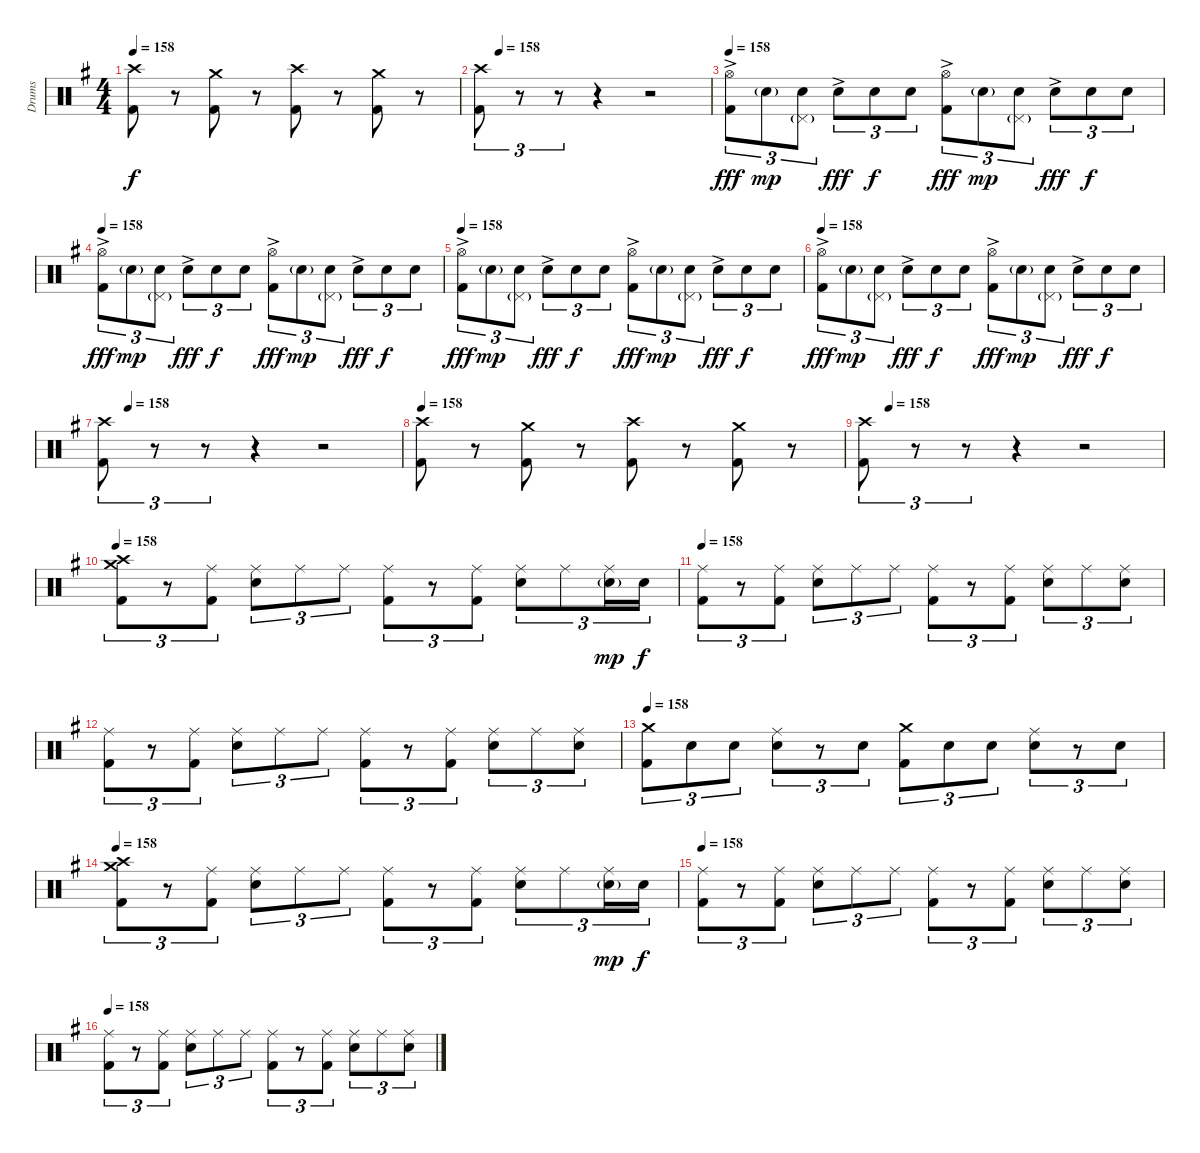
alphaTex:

\track ("Drums" "Drums") {instrument percussion}
\staff {score}
\articulation defaults
\ts (4 4)
\tempo 158
\clef neutral
\ks eminor
("Crash high (hit)" "Kick (hit) 2").8{dy f volume 14} r.8 ("Crash medium (hit)" "Kick (hit) 2").8 r.8 ("Crash high (hit)" "Kick (hit) 2").8 r.8 ("Crash medium (hit)" "Kick (hit) 2").8 r.8 |
\tempo (158 0.08333333333333333)
("Crash high (hit)" "Kick (hit) 2").8{tu (3 2)} r.8{tu (3 2) volume 0} r.8{tu (3 2)} r.4 r.2 |
\tempo 158
("Hi-Hat (open)"{ac} "Kick (hit) 2").8{tu (3 2) dy fff volume 14} "Snare (hit) 2"{g}.8{tu (3 2) dy mp} ("Snare (hit) 2" "Pedal Hi-Hat (hit)"{g}).8{tu (3 2)} "Snare (hit) 2"{ac}.8{tu (3 2) dy fff} "Snare (hit) 2".8{tu (3 2) dy f} "Snare (hit) 2".8{tu (3 2)} ("Hi-Hat (open)"{ac} "Kick (hit) 2").8{tu (3 2) dy fff} "Snare (hit) 2"{g}.8{tu (3 2) dy mp} ("Snare (hit) 2" "Pedal Hi-Hat (hit)"{g}).8{tu (3 2)} "Snare (hit) 2"{ac}.8{tu (3 2) dy fff} "Snare (hit) 2".8{tu (3 2) dy f} "Snare (hit) 2".8{tu (3 2)} |
\tempo 158
("Hi-Hat (open)"{ac} "Kick (hit) 2").8{tu (3 2) dy fff} "Snare (hit) 2"{g}.8{tu (3 2) dy mp} ("Snare (hit) 2" "Pedal Hi-Hat (hit)"{g}).8{tu (3 2)} "Snare (hit) 2"{ac}.8{tu (3 2) dy fff} "Snare (hit) 2".8{tu (3 2) dy f} "Snare (hit) 2".8{tu (3 2)} ("Hi-Hat (open)"{ac} "Kick (hit) 2").8{tu (3 2) dy fff} "Snare (hit) 2"{g}.8{tu (3 2) dy mp} ("Snare (hit) 2" "Pedal Hi-Hat (hit)"{g}).8{tu (3 2)} "Snare (hit) 2"{ac}.8{tu (3 2) dy fff} "Snare (hit) 2".8{tu (3 2) dy f} "Snare (hit) 2".8{tu (3 2)} |
\tempo 158
("Hi-Hat (open)"{ac} "Kick (hit) 2").8{tu (3 2) dy fff} "Snare (hit) 2"{g}.8{tu (3 2) dy mp} ("Snare (hit) 2" "Pedal Hi-Hat (hit)"{g}).8{tu (3 2)} "Snare (hit) 2"{ac}.8{tu (3 2) dy fff} "Snare (hit) 2".8{tu (3 2) dy f} "Snare (hit) 2".8{tu (3 2)} ("Hi-Hat (open)"{ac} "Kick (hit) 2").8{tu (3 2) dy fff} "Snare (hit) 2"{g}.8{tu (3 2) dy mp} ("Snare (hit) 2" "Pedal Hi-Hat (hit)"{g}).8{tu (3 2)} "Snare (hit) 2"{ac}.8{tu (3 2) dy fff} "Snare (hit) 2".8{tu (3 2) dy f} "Snare (hit) 2".8{tu (3 2)} |
\tempo 158
("Hi-Hat (open)"{ac} "Kick (hit) 2").8{tu (3 2) dy fff} "Snare (hit) 2"{g}.8{tu (3 2) dy mp} ("Snare (hit) 2" "Pedal Hi-Hat (hit)"{g}).8{tu (3 2)} "Snare (hit) 2"{ac}.8{tu (3 2) dy fff} "Snare (hit) 2".8{tu (3 2) dy f} "Snare (hit) 2".8{tu (3 2)} ("Hi-Hat (open)"{ac} "Kick (hit) 2").8{tu (3 2) dy fff} "Snare (hit) 2"{g}.8{tu (3 2) dy mp} ("Snare (hit) 2" "Pedal Hi-Hat (hit)"{g}).8{tu (3 2)} "Snare (hit) 2"{ac}.8{tu (3 2) dy fff} "Snare (hit) 2".8{tu (3 2) dy f} "Snare (hit) 2".8{tu (3 2)} |
\tempo (158 0.08333333333333333)
("Crash high (hit)" "Kick (hit) 2").8{tu (3 2)} r.8{tu (3 2) volume 0} r.8{tu (3 2)} r.4 r.2 |
\tempo 158
("Crash high (hit)" "Kick (hit) 2").8{volume 14} r.8 ("Crash medium (hit)" "Kick (hit) 2").8 r.8 ("Crash high (hit)" "Kick (hit) 2").8 r.8 ("Crash medium (hit)" "Kick (hit) 2").8 r.8 |
\tempo (158 0.08333333333333333)
("Crash high (hit)" "Kick (hit) 2").8{tu (3 2)} r.8{tu (3 2) volume 0} r.8{tu (3 2)} r.4 r.2 |
\tempo 158
("Crash high (hit)" "Crash medium (hit)" "Kick (hit) 2").8{tu (3 2) volume 14} r.8{tu (3 2)} ("Ride (middle)" "Kick (hit) 2").8{tu (3 2)} ("Ride (middle)" "Snare (hit) 2").8{tu (3 2)} "Ride (middle)".8{tu (3 2)} "Ride (middle)".8{tu (3 2)} ("Ride (middle)" "Kick (hit) 2").8{tu (3 2)} r.8{tu (3 2)} ("Ride (middle)" "Kick (hit) 2").8{tu (3 2)} ("Ride (middle)" "Snare (hit) 2").8{tu (3 2)} "Ride (middle)".8{tu (3 2)} ("Ride (middle)" "Snare (hit) 2"{g}).16{tu (3 2) dy mp} "Snare (hit) 2".16{tu (3 2) dy f} |
\tempo 158
("Ride (middle)" "Kick (hit) 2").8{tu (3 2)} r.8{tu (3 2)} ("Ride (middle)" "Kick (hit) 2").8{tu (3 2)} ("Ride (middle)" "Snare (hit) 2").8{tu (3 2)} "Ride (middle)".8{tu (3 2)} "Ride (middle)".8{tu (3 2)} ("Ride (middle)" "Kick (hit) 2").8{tu (3 2)} r.8{tu (3 2)} ("Ride (middle)" "Kick (hit) 2").8{tu (3 2)} ("Ride (middle)" "Snare (hit) 2").8{tu (3 2)} "Ride (middle)".8{tu (3 2)} ("Ride (middle)" "Snare (hit) 2").8{tu (3 2)} |
("Ride (middle)" "Kick (hit) 2").8{tu (3 2)} r.8{tu (3 2)} ("Ride (middle)" "Kick (hit) 2").8{tu (3 2)} ("Ride (middle)" "Snare (hit) 2").8{tu (3 2)} "Ride (middle)".8{tu (3 2)} "Ride (middle)".8{tu (3 2)} ("Ride (middle)" "Kick (hit) 2").8{tu (3 2)} r.8{tu (3 2)} ("Ride (middle)" "Kick (hit) 2").8{tu (3 2)} ("Ride (middle)" "Snare (hit) 2").8{tu (3 2)} "Ride (middle)".8{tu (3 2)} ("Ride (middle)" "Snare (hit) 2").8{tu (3 2)} |
\tempo 158
("Crash medium (hit)" "Kick (hit) 2").8{tu (3 2)} "Snare (hit) 2".8{tu (3 2)} "Snare (hit) 2".8{tu (3 2)} ("Ride (middle)" "Snare (hit) 2").8{tu (3 2)} r.8{tu (3 2)} "Snare (hit) 2".8{tu (3 2)} ("Crash medium (hit)" "Kick (hit) 2").8{tu (3 2)} "Snare (hit) 2".8{tu (3 2)} "Snare (hit) 2".8{tu (3 2)} ("Ride (middle)" "Snare (hit) 2").8{tu (3 2)} r.8{tu (3 2)} "Snare (hit) 2".8{tu (3 2)} |
\tempo 158
("Crash high (hit)" "Crash medium (hit)" "Kick (hit) 2").8{tu (3 2) volume 14} r.8{tu (3 2)} ("Ride (middle)" "Kick (hit) 2").8{tu (3 2)} ("Ride (middle)" "Snare (hit) 2").8{tu (3 2)} "Ride (middle)".8{tu (3 2)} "Ride (middle)".8{tu (3 2)} ("Ride (middle)" "Kick (hit) 2").8{tu (3 2)} r.8{tu (3 2)} ("Ride (middle)" "Kick (hit) 2").8{tu (3 2)} ("Ride (middle)" "Snare (hit) 2").8{tu (3 2)} "Ride (middle)".8{tu (3 2)} ("Ride (middle)" "Snare (hit) 2"{g}).16{tu (3 2) dy mp} "Snare (hit) 2".16{tu (3 2) dy f} |
\tempo 158
("Ride (middle)" "Kick (hit) 2").8{tu (3 2)} r.8{tu (3 2)} ("Ride (middle)" "Kick (hit) 2").8{tu (3 2)} ("Ride (middle)" "Snare (hit) 2").8{tu (3 2)} "Ride (middle)".8{tu (3 2)} "Ride (middle)".8{tu (3 2)} ("Ride (middle)" "Kick (hit) 2").8{tu (3 2)} r.8{tu (3 2)} ("Ride (middle)" "Kick (hit) 2").8{tu (3 2)} ("Ride (middle)" "Snare (hit) 2").8{tu (3 2)} "Ride (middle)".8{tu (3 2)} ("Ride (middle)" "Snare (hit) 2").8{tu (3 2)} |
\tempo 158
("Ride (middle)" "Kick (hit) 2").8{tu (3 2)} r.8{tu (3 2)} ("Ride (middle)" "Kick (hit) 2").8{tu (3 2)} ("Ride (middle)" "Snare (hit) 2").8{tu (3 2)} "Ride (middle)".8{tu (3 2)} "Ride (middle)".8{tu (3 2)} ("Ride (middle)" "Kick (hit) 2").8{tu (3 2)} r.8{tu (3 2)} ("Ride (middle)" "Kick (hit) 2").8{tu (3 2)} ("Ride (middle)" "Snare (hit) 2").8{tu (3 2)} "Ride (middle)".8{tu (3 2)} ("Ride (middle)" "Snare (hit) 2").8{tu (3 2)}
